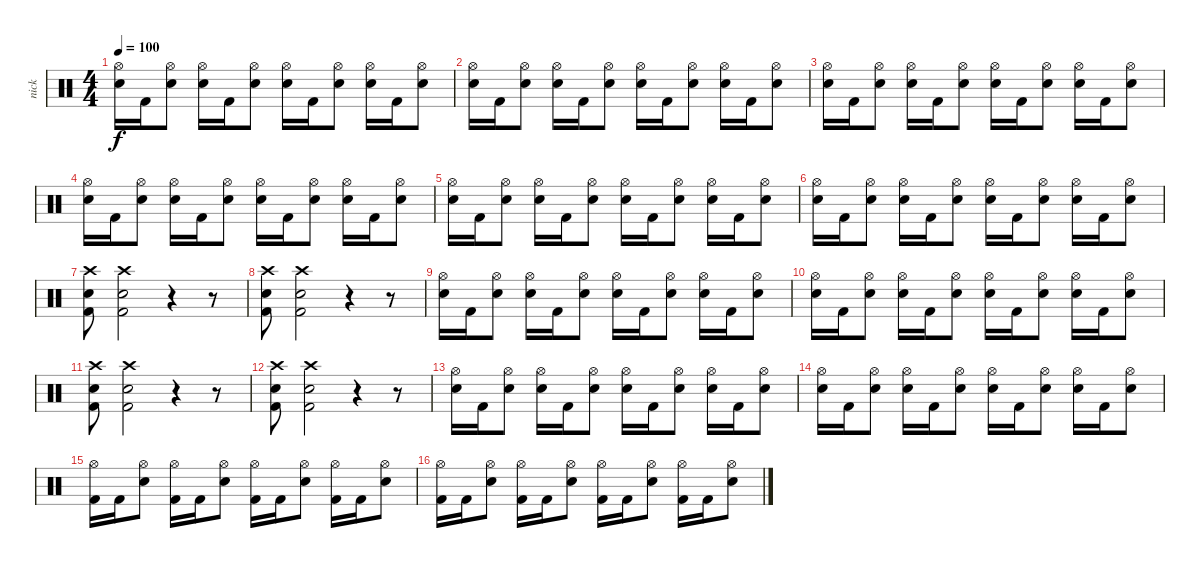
\track ("nick" "nick") {instrument percussion}
\staff {score}
\articulation defaults
\ts (4 4)
\tempo 100
\clef neutral
\ks c
("Snare (hit) 2" "Hi-Hat (open)").16{dy f} "Kick (hit) 2".16 ("Snare (hit) 2" "Hi-Hat (open)").8 ("Snare (hit) 2" "Hi-Hat (open)").16 "Kick (hit) 2".16 ("Snare (hit) 2" "Hi-Hat (open)").8 ("Snare (hit) 2" "Hi-Hat (open)").16 "Kick (hit) 2".16 ("Snare (hit) 2" "Hi-Hat (open)").8 ("Snare (hit) 2" "Hi-Hat (open)").16 "Kick (hit) 2".16 ("Snare (hit) 2" "Hi-Hat (open)").8 |
("Snare (hit) 2" "Hi-Hat (open)").16 "Kick (hit) 2".16 ("Snare (hit) 2" "Hi-Hat (open)").8 ("Snare (hit) 2" "Hi-Hat (open)").16 "Kick (hit) 2".16 ("Snare (hit) 2" "Hi-Hat (open)").8 ("Snare (hit) 2" "Hi-Hat (open)").16 "Kick (hit) 2".16 ("Snare (hit) 2" "Hi-Hat (open)").8 ("Snare (hit) 2" "Hi-Hat (open)").16 "Kick (hit) 2".16 ("Snare (hit) 2" "Hi-Hat (open)").8 |
("Snare (hit) 2" "Hi-Hat (open)").16 "Kick (hit) 2".16 ("Snare (hit) 2" "Hi-Hat (open)").8 ("Snare (hit) 2" "Hi-Hat (open)").16 "Kick (hit) 2".16 ("Snare (hit) 2" "Hi-Hat (open)").8 ("Snare (hit) 2" "Hi-Hat (open)").16 "Kick (hit) 2".16 ("Snare (hit) 2" "Hi-Hat (open)").8 ("Snare (hit) 2" "Hi-Hat (open)").16 "Kick (hit) 2".16 ("Snare (hit) 2" "Hi-Hat (open)").8 |
("Snare (hit) 2" "Hi-Hat (open)").16 "Kick (hit) 2".16 ("Snare (hit) 2" "Hi-Hat (open)").8 ("Snare (hit) 2" "Hi-Hat (open)").16 "Kick (hit) 2".16 ("Snare (hit) 2" "Hi-Hat (open)").8 ("Snare (hit) 2" "Hi-Hat (open)").16 "Kick (hit) 2".16 ("Snare (hit) 2" "Hi-Hat (open)").8 ("Snare (hit) 2" "Hi-Hat (open)").16 "Kick (hit) 2".16 ("Snare (hit) 2" "Hi-Hat (open)").8 |
("Snare (hit) 2" "Hi-Hat (open)").16 "Kick (hit) 2".16 ("Snare (hit) 2" "Hi-Hat (open)").8 ("Snare (hit) 2" "Hi-Hat (open)").16 "Kick (hit) 2".16 ("Snare (hit) 2" "Hi-Hat (open)").8 ("Snare (hit) 2" "Hi-Hat (open)").16 "Kick (hit) 2".16 ("Snare (hit) 2" "Hi-Hat (open)").8 ("Snare (hit) 2" "Hi-Hat (open)").16 "Kick (hit) 2".16 ("Snare (hit) 2" "Hi-Hat (open)").8 |
("Snare (hit) 2" "Hi-Hat (open)").16 "Kick (hit) 2".16 ("Snare (hit) 2" "Hi-Hat (open)").8 ("Snare (hit) 2" "Hi-Hat (open)").16 "Kick (hit) 2".16 ("Snare (hit) 2" "Hi-Hat (open)").8 ("Snare (hit) 2" "Hi-Hat (open)").16 "Kick (hit) 2".16 ("Snare (hit) 2" "Hi-Hat (open)").8 ("Snare (hit) 2" "Hi-Hat (open)").16 "Kick (hit) 2".16 ("Snare (hit) 2" "Hi-Hat (open)").8 |
("Snare (hit) 2" "Kick (hit) 2" "Crash high (hit)").8 ("Snare (hit) 2" "Kick (hit) 2" "Crash high (hit)").2 r.4 r.8 |
("Snare (hit) 2" "Kick (hit) 2" "Crash high (hit)").8 ("Snare (hit) 2" "Kick (hit) 2" "Crash high (hit)").2 r.4 r.8 |
("Snare (hit) 2" "Hi-Hat (open)").16 "Kick (hit) 2".16 ("Snare (hit) 2" "Hi-Hat (open)").8 ("Snare (hit) 2" "Hi-Hat (open)").16 "Kick (hit) 2".16 ("Snare (hit) 2" "Hi-Hat (open)").8 ("Snare (hit) 2" "Hi-Hat (open)").16 "Kick (hit) 2".16 ("Snare (hit) 2" "Hi-Hat (open)").8 ("Snare (hit) 2" "Hi-Hat (open)").16 "Kick (hit) 2".16 ("Snare (hit) 2" "Hi-Hat (open)").8 |
("Snare (hit) 2" "Hi-Hat (open)").16 "Kick (hit) 2".16 ("Snare (hit) 2" "Hi-Hat (open)").8 ("Snare (hit) 2" "Hi-Hat (open)").16 "Kick (hit) 2".16 ("Snare (hit) 2" "Hi-Hat (open)").8 ("Snare (hit) 2" "Hi-Hat (open)").16 "Kick (hit) 2".16 ("Snare (hit) 2" "Hi-Hat (open)").8 ("Snare (hit) 2" "Hi-Hat (open)").16 "Kick (hit) 2".16 ("Snare (hit) 2" "Hi-Hat (open)").8 |
("Snare (hit) 2" "Kick (hit) 2" "Crash high (hit)").8 ("Snare (hit) 2" "Kick (hit) 2" "Crash high (hit)").2 r.4 r.8 |
("Snare (hit) 2" "Kick (hit) 2" "Crash high (hit)").8 ("Snare (hit) 2" "Kick (hit) 2" "Crash high (hit)").2 r.4 r.8 |
("Snare (hit) 2" "Hi-Hat (open)").16 "Kick (hit) 2".16 ("Snare (hit) 2" "Hi-Hat (open)").8 ("Snare (hit) 2" "Hi-Hat (open)").16 "Kick (hit) 2".16 ("Snare (hit) 2" "Hi-Hat (open)").8 ("Snare (hit) 2" "Hi-Hat (open)").16 "Kick (hit) 2".16 ("Snare (hit) 2" "Hi-Hat (open)").8 ("Snare (hit) 2" "Hi-Hat (open)").16 "Kick (hit) 2".16 ("Snare (hit) 2" "Hi-Hat (open)").8 |
("Snare (hit) 2" "Hi-Hat (open)").16 "Kick (hit) 2".16 ("Snare (hit) 2" "Hi-Hat (open)").8 ("Snare (hit) 2" "Hi-Hat (open)").16 "Kick (hit) 2".16 ("Snare (hit) 2" "Hi-Hat (open)").8 ("Snare (hit) 2" "Hi-Hat (open)").16 "Kick (hit) 2".16 ("Snare (hit) 2" "Hi-Hat (open)").8 ("Snare (hit) 2" "Hi-Hat (open)").16 "Kick (hit) 2".16 ("Snare (hit) 2" "Hi-Hat (open)").8 |
("Kick (hit) 2" "Hi-Hat (open)").16 "Kick (hit) 2".16 ("Snare (hit) 2" "Hi-Hat (open)").8 ("Kick (hit) 2" "Hi-Hat (open)").16 "Kick (hit) 2".16 ("Snare (hit) 2" "Hi-Hat (open)").8 ("Kick (hit) 2" "Hi-Hat (open)").16 "Kick (hit) 2".16 ("Snare (hit) 2" "Hi-Hat (open)").8 ("Kick (hit) 2" "Hi-Hat (open)").16 "Kick (hit) 2".16 ("Snare (hit) 2" "Hi-Hat (open)").8 |
("Kick (hit) 2" "Hi-Hat (open)").16 "Kick (hit) 2".16 ("Snare (hit) 2" "Hi-Hat (open)").8 ("Kick (hit) 2" "Hi-Hat (open)").16 "Kick (hit) 2".16 ("Snare (hit) 2" "Hi-Hat (open)").8 ("Kick (hit) 2" "Hi-Hat (open)").16 "Kick (hit) 2".16 ("Snare (hit) 2" "Hi-Hat (open)").8 ("Kick (hit) 2" "Hi-Hat (open)").16 "Kick (hit) 2".16 ("Snare (hit) 2" "Hi-Hat (open)").8
